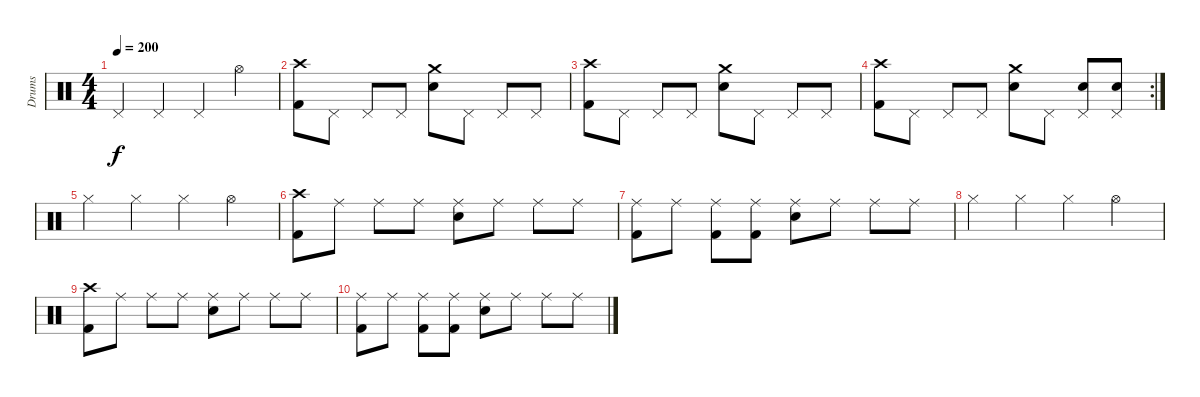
\track ("Drums" "Drums") {instrument percussion}
\staff {score}
\articulation defaults
\ts (4 4)
\tempo 200
\clef neutral
\ks c "Pedal Hi-Hat (hit)".4{dy f} "Pedal Hi-Hat (hit)".4 "Pedal Hi-Hat (hit)".4 "Hi-Hat (open)".4
|
("Crash high (hit)" "Kick (hit) 2").8 "Pedal Hi-Hat (hit)".8 "Pedal Hi-Hat (hit)".8 "Pedal Hi-Hat (hit)".8 ("Crash medium (hit)" "Snare (hit) 2").8 "Pedal Hi-Hat (hit)".8 "Pedal Hi-Hat (hit)".8 "Pedal Hi-Hat (hit)".8 |
("Crash high (hit)" "Kick (hit) 2").8 "Pedal Hi-Hat (hit)".8 "Pedal Hi-Hat (hit)".8 "Pedal Hi-Hat (hit)".8 ("Crash medium (hit)" "Snare (hit) 2").8 "Pedal Hi-Hat (hit)".8 "Pedal Hi-Hat (hit)".8 "Pedal Hi-Hat (hit)".8 |
\rc 2
("Crash high (hit)" "Kick (hit) 2").8 "Pedal Hi-Hat (hit)".8 "Pedal Hi-Hat (hit)".8 "Pedal Hi-Hat (hit)".8 ("Crash medium (hit)" "Snare (hit) 2").8 "Pedal Hi-Hat (hit)".8 ("Pedal Hi-Hat (hit)" "Snare (hit) 2").8 ("Pedal Hi-Hat (hit)" "Snare (hit) 2").8 |
"Hi-Hat (closed)".4 "Hi-Hat (closed)".4 "Hi-Hat (closed)".4 "Hi-Hat (open)".4 |
("Crash high (hit)" "Kick (hit) 2").8 "Ride (middle)".8 "Ride (middle)".8 "Ride (middle)".8 ("Ride (middle)" "Snare (hit) 2").8 "Ride (middle)".8 "Ride (middle)".8 "Ride (middle)".8 |
("Ride (middle)" "Kick (hit) 2").8 "Ride (middle)".8 ("Ride (middle)" "Kick (hit) 2").8 ("Ride (middle)" "Kick (hit) 2").8 ("Ride (middle)" "Snare (hit) 2").8 "Ride (middle)".8 "Ride (middle)".8 "Ride (middle)".8 |
"Hi-Hat (closed)".4 "Hi-Hat (closed)".4 "Hi-Hat (closed)".4 "Hi-Hat (open)".4 |
("Crash high (hit)" "Kick (hit) 2").8 "Ride (middle)".8 "Ride (middle)".8 "Ride (middle)".8 ("Ride (middle)" "Snare (hit) 2").8 "Ride (middle)".8 "Ride (middle)".8 "Ride (middle)".8 |
("Ride (middle)" "Kick (hit) 2").8 "Ride (middle)".8 ("Ride (middle)" "Kick (hit) 2").8 ("Ride (middle)" "Kick (hit) 2").8 ("Ride (middle)" "Snare (hit) 2").8 "Ride (middle)".8 "Ride (middle)".8 "Ride (middle)".8
